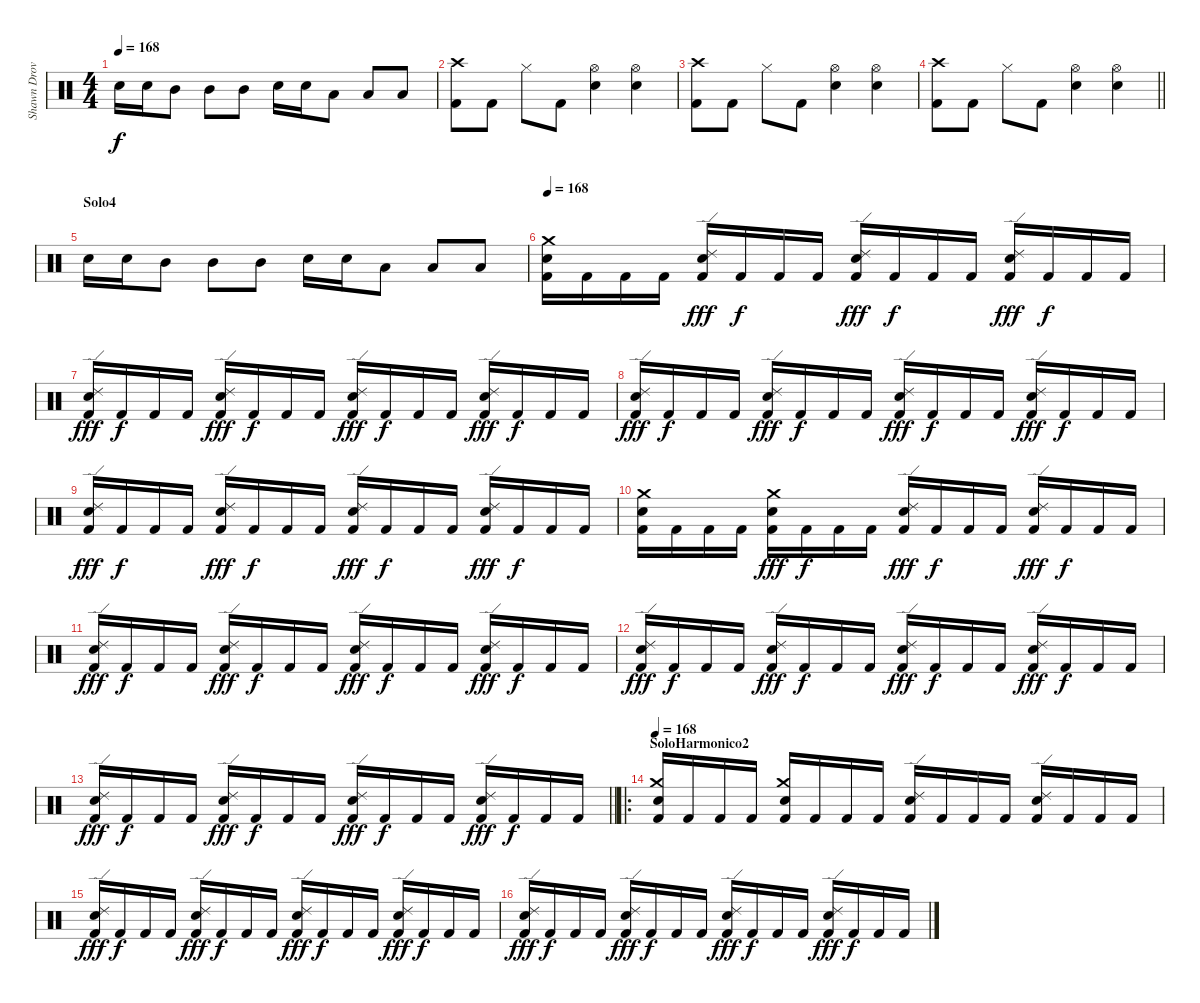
\track ("Shawn Drover" "Shawn Drov") {instrument percussion}
\staff {score}
\articulation defaults
\ts (4 4)
\tempo 168
\clef neutral
\ks c "Electric Snare (hit)".16{dy f} "Electric Snare (hit)".16 "Mid Tom (hit)".8 "Mid Tom (hit)".8 "Mid Tom (hit)".8 "Electric Snare (hit)".16 "Electric Snare (hit)".16 "Low Tom (hit)".8 "Low Tom (hit)".8 "Low Tom (hit)".8
|
("Crash high (hit)" "Kick (hit) 2").8 "Kick (hit) 2".8 "Hi-Hat (closed)".8 "Kick (hit) 2".8 ("Hi-Hat (open)" "Electric Snare (hit)").4 ("Hi-Hat (open)" "Electric Snare (hit)").4 |
("Crash high (hit)" "Kick (hit) 2").8 "Kick (hit) 2".8 "Hi-Hat (closed)".8 "Kick (hit) 2".8 ("Hi-Hat (open)" "Electric Snare (hit)").4 ("Hi-Hat (open)" "Electric Snare (hit)").4 |
\barLineRight lightlight
("Crash high (hit)" "Kick (hit) 2").8 "Kick (hit) 2".8 "Hi-Hat (closed)".8 "Kick (hit) 2".8 ("Hi-Hat (open)" "Electric Snare (hit)").4 ("Hi-Hat (open)" "Electric Snare (hit)").4 |
\section ("" "Solo4")
"Electric Snare (hit)".16 "Electric Snare (hit)".16 "Mid Tom (hit)".8 "Mid Tom (hit)".8 "Mid Tom (hit)".8 "Electric Snare (hit)".16 "Electric Snare (hit)".16 "Low Tom (hit)".8 "Low Tom (hit)".8 "Low Tom (hit)".8 |
\tempo 168
("Crash medium (hit)" "Electric Snare (hit)" "Kick (hit) 2").16 "Kick (hit) 2".16 "Kick (hit) 2".16 "Kick (hit) 2".16 ("Ride (edge) 2" "Electric Snare (hit)" "Kick (hit) 2").16{dy fff} "Kick (hit) 2".16{dy f} "Kick (hit) 2".16 "Kick (hit) 2".16 ("Ride (edge) 2" "Electric Snare (hit)" "Kick (hit) 2").16{dy fff} "Kick (hit) 2".16{dy f} "Kick (hit) 2".16 "Kick (hit) 2".16 ("Ride (edge) 2" "Electric Snare (hit)" "Kick (hit) 2").16{dy fff} "Kick (hit) 2".16{dy f} "Kick (hit) 2".16 "Kick (hit) 2".16 |
("Ride (edge) 2" "Electric Snare (hit)" "Kick (hit) 2").16{dy fff} "Kick (hit) 2".16{dy f} "Kick (hit) 2".16 "Kick (hit) 2".16 ("Ride (edge) 2" "Electric Snare (hit)" "Kick (hit) 2").16{dy fff} "Kick (hit) 2".16{dy f} "Kick (hit) 2".16 "Kick (hit) 2".16 ("Ride (edge) 2" "Electric Snare (hit)" "Kick (hit) 2").16{dy fff} "Kick (hit) 2".16{dy f} "Kick (hit) 2".16 "Kick (hit) 2".16 ("Ride (edge) 2" "Electric Snare (hit)" "Kick (hit) 2").16{dy fff} "Kick (hit) 2".16{dy f} "Kick (hit) 2".16 "Kick (hit) 2".16 |
("Ride (edge) 2" "Electric Snare (hit)" "Kick (hit) 2").16{dy fff} "Kick (hit) 2".16{dy f} "Kick (hit) 2".16 "Kick (hit) 2".16 ("Ride (edge) 2" "Electric Snare (hit)" "Kick (hit) 2").16{dy fff} "Kick (hit) 2".16{dy f} "Kick (hit) 2".16 "Kick (hit) 2".16 ("Ride (edge) 2" "Electric Snare (hit)" "Kick (hit) 2").16{dy fff} "Kick (hit) 2".16{dy f} "Kick (hit) 2".16 "Kick (hit) 2".16 ("Ride (edge) 2" "Electric Snare (hit)" "Kick (hit) 2").16{dy fff} "Kick (hit) 2".16{dy f} "Kick (hit) 2".16 "Kick (hit) 2".16 |
("Ride (edge) 2" "Electric Snare (hit)" "Kick (hit) 2").16{dy fff} "Kick (hit) 2".16{dy f} "Kick (hit) 2".16 "Kick (hit) 2".16 ("Ride (edge) 2" "Electric Snare (hit)" "Kick (hit) 2").16{dy fff} "Kick (hit) 2".16{dy f} "Kick (hit) 2".16 "Kick (hit) 2".16 ("Ride (edge) 2" "Electric Snare (hit)" "Kick (hit) 2").16{dy fff} "Kick (hit) 2".16{dy f} "Kick (hit) 2".16 "Kick (hit) 2".16 ("Ride (edge) 2" "Electric Snare (hit)" "Kick (hit) 2").16{dy fff} "Kick (hit) 2".16{dy f} "Kick (hit) 2".16 "Kick (hit) 2".16 |
("Crash medium (hit)" "Electric Snare (hit)" "Kick (hit) 2").16 "Kick (hit) 2".16 "Kick (hit) 2".16 "Kick (hit) 2".16 ("Crash medium (hit)" "Electric Snare (hit)" "Kick (hit) 2").16{dy fff} "Kick (hit) 2".16{dy f} "Kick (hit) 2".16 "Kick (hit) 2".16 ("Ride (edge) 2" "Electric Snare (hit)" "Kick (hit) 2").16{dy fff} "Kick (hit) 2".16{dy f} "Kick (hit) 2".16 "Kick (hit) 2".16 ("Ride (edge) 2" "Electric Snare (hit)" "Kick (hit) 2").16{dy fff} "Kick (hit) 2".16{dy f} "Kick (hit) 2".16 "Kick (hit) 2".16 |
("Ride (edge) 2" "Electric Snare (hit)" "Kick (hit) 2").16{dy fff} "Kick (hit) 2".16{dy f} "Kick (hit) 2".16 "Kick (hit) 2".16 ("Ride (edge) 2" "Electric Snare (hit)" "Kick (hit) 2").16{dy fff} "Kick (hit) 2".16{dy f} "Kick (hit) 2".16 "Kick (hit) 2".16 ("Ride (edge) 2" "Electric Snare (hit)" "Kick (hit) 2").16{dy fff} "Kick (hit) 2".16{dy f} "Kick (hit) 2".16 "Kick (hit) 2".16 ("Ride (edge) 2" "Electric Snare (hit)" "Kick (hit) 2").16{dy fff} "Kick (hit) 2".16{dy f} "Kick (hit) 2".16 "Kick (hit) 2".16 |
("Ride (edge) 2" "Electric Snare (hit)" "Kick (hit) 2").16{dy fff} "Kick (hit) 2".16{dy f} "Kick (hit) 2".16 "Kick (hit) 2".16 ("Ride (edge) 2" "Electric Snare (hit)" "Kick (hit) 2").16{dy fff} "Kick (hit) 2".16{dy f} "Kick (hit) 2".16 "Kick (hit) 2".16 ("Ride (edge) 2" "Electric Snare (hit)" "Kick (hit) 2").16{dy fff} "Kick (hit) 2".16{dy f} "Kick (hit) 2".16 "Kick (hit) 2".16 ("Ride (edge) 2" "Electric Snare (hit)" "Kick (hit) 2").16{dy fff} "Kick (hit) 2".16{dy f} "Kick (hit) 2".16 "Kick (hit) 2".16 |
\barLineRight lightlight
("Ride (edge) 2" "Electric Snare (hit)" "Kick (hit) 2").16{dy fff} "Kick (hit) 2".16{dy f} "Kick (hit) 2".16 "Kick (hit) 2".16 ("Ride (edge) 2" "Electric Snare (hit)" "Kick (hit) 2").16{dy fff} "Kick (hit) 2".16{dy f} "Kick (hit) 2".16 "Kick (hit) 2".16 ("Ride (edge) 2" "Electric Snare (hit)" "Kick (hit) 2").16{dy fff} "Kick (hit) 2".16{dy f} "Kick (hit) 2".16 "Kick (hit) 2".16 ("Ride (edge) 2" "Electric Snare (hit)" "Kick (hit) 2").16{dy fff} "Kick (hit) 2".16{dy f} "Kick (hit) 2".16 "Kick (hit) 2".16 |
\ro
\section ("" "SoloHarmonico2")
\tempo 168
("Crash medium (hit)" "Snare (hit) 2" "Kick (hit) 2").16 "Kick (hit) 2".16 "Kick (hit) 2".16 "Kick (hit) 2".16 ("Crash medium (hit)" "Snare (hit) 2" "Kick (hit) 2").16 "Kick (hit) 2".16 "Kick (hit) 2".16 "Kick (hit) 2".16 ("Ride (edge) 2" "Snare (hit) 2" "Kick (hit) 2").16 "Kick (hit) 2".16 "Kick (hit) 2".16 "Kick (hit) 2".16 ("Ride (edge) 2" "Snare (hit) 2" "Kick (hit) 2").16 "Kick (hit) 2".16 "Kick (hit) 2".16 "Kick (hit) 2".16 |
("Ride (edge) 2" "Electric Snare (hit)" "Kick (hit) 2").16{dy fff} "Kick (hit) 2".16{dy f} "Kick (hit) 2".16 "Kick (hit) 2".16 ("Ride (edge) 2" "Electric Snare (hit)" "Kick (hit) 2").16{dy fff} "Kick (hit) 2".16{dy f} "Kick (hit) 2".16 "Kick (hit) 2".16 ("Ride (edge) 2" "Electric Snare (hit)" "Kick (hit) 2").16{dy fff} "Kick (hit) 2".16{dy f} "Kick (hit) 2".16 "Kick (hit) 2".16 ("Ride (edge) 2" "Electric Snare (hit)" "Kick (hit) 2").16{dy fff} "Kick (hit) 2".16{dy f} "Kick (hit) 2".16 "Kick (hit) 2".16 |
("Ride (edge) 2" "Electric Snare (hit)" "Kick (hit) 2").16{dy fff} "Kick (hit) 2".16{dy f} "Kick (hit) 2".16 "Kick (hit) 2".16 ("Ride (edge) 2" "Electric Snare (hit)" "Kick (hit) 2").16{dy fff} "Kick (hit) 2".16{dy f} "Kick (hit) 2".16 "Kick (hit) 2".16 ("Ride (edge) 2" "Electric Snare (hit)" "Kick (hit) 2").16{dy fff} "Kick (hit) 2".16{dy f} "Kick (hit) 2".16 "Kick (hit) 2".16 ("Ride (edge) 2" "Electric Snare (hit)" "Kick (hit) 2").16{dy fff} "Kick (hit) 2".16{dy f} "Kick (hit) 2".16 "Kick (hit) 2".16
